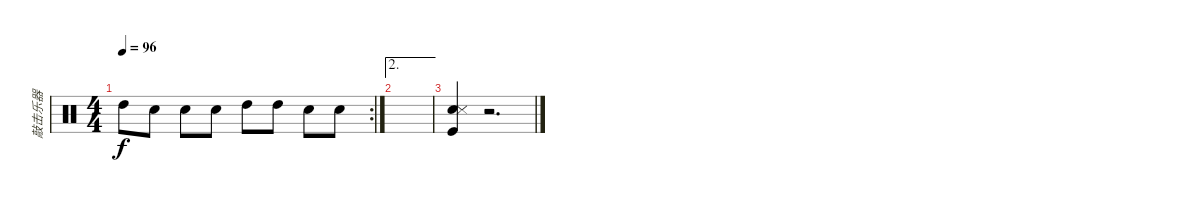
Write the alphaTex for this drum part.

\track ("敲击乐器" "敲击乐器") {instrument percussion}
\staff {score}
\articulation defaults
\rc 2
\ts (4 4)
\tempo 96
\clef neutral
\ks c "High Tom (hit)".8{dy f} "Snare (hit) 2".8 "Snare (hit) 2".8 "Snare (hit) 2".8 "High Tom (hit)".8 "High Tom (hit)".8 "Snare (hit) 2".8 "Snare (hit) 2".8
|
\ae 2
|
("Snare (hit) 2" "Snare (side stick) 3" "Kick (hit)").4 r.2{d}
